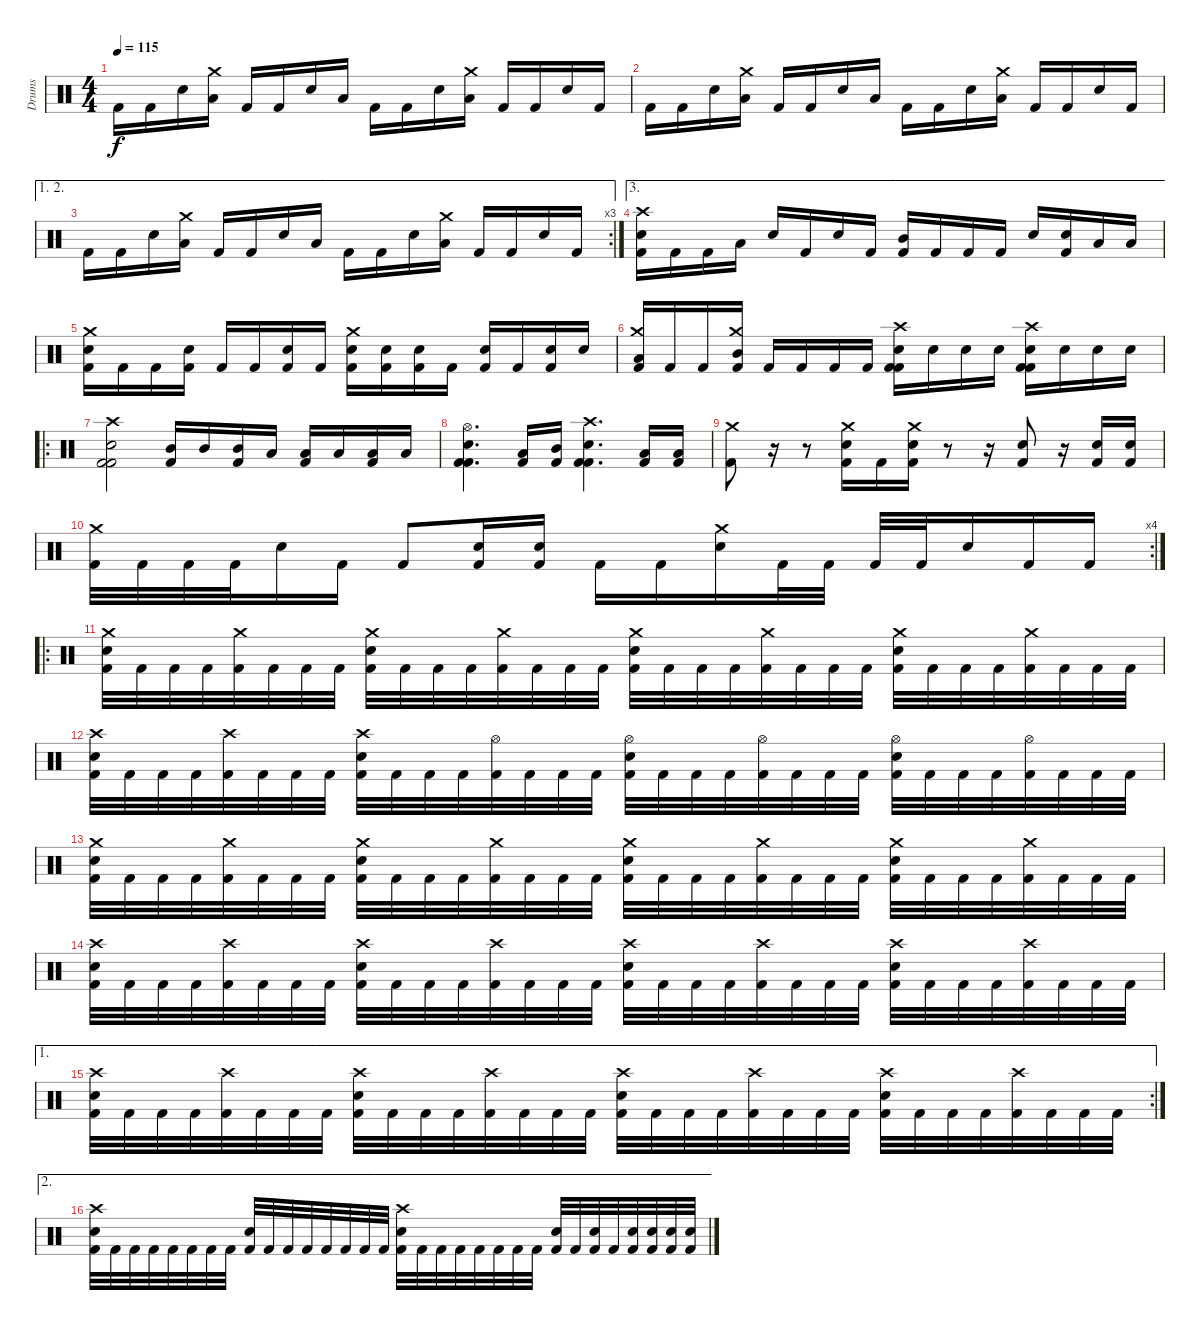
\track ("Drums" "Drums") {instrument percussion}
\staff {score}
\articulation defaults
\ts (4 4)
\tempo 115
\clef neutral
\ks c "Kick (hit) 2".16{dy f} "Kick (hit) 2".16 "Electric Snare (hit)".16
("Crash medium (hit)" "Low Tom (hit)").16 "Kick (hit) 2".16 "Kick (hit) 2".16 "Electric Snare (hit)".16 "Low Tom (hit)".16 "Kick (hit) 2".16 "Kick (hit) 2".16 "Electric Snare (hit)".16 ("Crash medium (hit)" "Low Tom (hit)").16 "Kick (hit) 2".16 "Kick (hit) 2".16 "Electric Snare (hit)".16 "Kick (hit) 2".16 |
"Kick (hit) 2".16 "Kick (hit) 2".16 "Electric Snare (hit)".16 ("Crash medium (hit)" "Low Tom (hit)").16 "Kick (hit) 2".16 "Kick (hit) 2".16 "Electric Snare (hit)".16 "Low Tom (hit)".16 "Kick (hit) 2".16 "Kick (hit) 2".16 "Electric Snare (hit)".16 ("Crash medium (hit)" "Low Tom (hit)").16 "Kick (hit) 2".16 "Kick (hit) 2".16 "Electric Snare (hit)".16 "Kick (hit) 2".16 |
\ae (1 2)
\rc 3 "Kick (hit) 2".16 "Kick (hit) 2".16 "Electric Snare (hit)".16
("Crash medium (hit)" "Low Tom (hit)").16 "Kick (hit) 2".16 "Kick (hit) 2".16 "Electric Snare (hit)".16 "Low Tom (hit)".16 "Kick (hit) 2".16 "Kick (hit) 2".16 "Electric Snare (hit)".16 ("Crash medium (hit)" "Low Tom (hit)").16 "Kick (hit) 2".16 "Kick (hit) 2".16 "Electric Snare (hit)".16 "Kick (hit) 2".16 |
\ae 3
("Crash high (hit)" "Electric Snare (hit)" "Kick (hit) 2").16 "Kick (hit) 2".16 "Kick (hit) 2".16 "Low Tom (hit)".16 "Electric Snare (hit)".16 "Kick (hit) 2".16 "Electric Snare (hit)".16 "Kick (hit) 2".16 ("Mid Tom (hit)" "Kick (hit) 2").16 "Kick (hit) 2".16 "Kick (hit) 2".16 "Kick (hit) 2".16 "Electric Snare (hit)".16 ("Electric Snare (hit)" "Kick (hit) 2").16 "Low Floor Tom (hit)".16 "Low Tom (hit)".16 |
("Crash medium (hit)" "Electric Snare (hit)" "Kick (hit) 2").16 "Kick (hit) 2".16 "Kick (hit) 2".16 ("Electric Snare (hit)" "Kick (hit) 2").16 "Kick (hit) 2".16 "Kick (hit) 2".16 ("Electric Snare (hit)" "Kick (hit) 2").16 "Kick (hit) 2".16 ("Crash medium (hit)" "Electric Snare (hit)" "Kick (hit) 2").16 ("Electric Snare (hit)" "Kick (hit) 2").16 ("Electric Snare (hit)" "Kick (hit) 2").16 "Kick (hit) 2".16 ("Electric Snare (hit)" "Kick (hit) 2").16 "Kick (hit) 2".16 ("Electric Snare (hit)" "Kick (hit) 2").16 "Electric Snare (hit)".16 |
("Crash medium (hit)" "Low Tom (hit)" "Kick (hit) 2").16 "Kick (hit) 2".16 "Kick (hit) 2".16 ("Crash medium (hit)" "Mid Tom (hit)" "Kick (hit) 2").16 "Kick (hit) 2".16 "Kick (hit) 2".16 "Kick (hit) 2".16 "Kick (hit) 2".16 ("Crash high (hit)" "Electric Snare (hit)" "Kick (hit) 2" "Kick (hit) 2").16 "Electric Snare (hit)".16 "Electric Snare (hit)".16 "Electric Snare (hit)".16 ("Crash high (hit)" "Electric Snare (hit)" "Kick (hit) 2" "Kick (hit) 2").16 "Electric Snare (hit)".16 "Electric Snare (hit)".16 "Electric Snare (hit)".16 |
\ro
("Crash high (hit)" "Electric Snare (hit)" "Kick (hit) 2" "Kick (hit) 2").2 ("Mid Tom (hit)" "Kick (hit) 2").16 "Mid Tom (hit)".16 ("Mid Tom (hit)" "Kick (hit) 2").16 "Low Tom (hit)".16 ("Low Tom (hit)" "Kick (hit) 2").16 "Low Tom (hit)".16 ("Low Floor Tom (hit)" "Kick (hit) 2").16 "Low Floor Tom (hit)".16 |
("Hi-Hat (open)" "Electric Snare (hit)" "Kick (hit) 2" "Kick (hit) 2").4{d} ("Low Tom (hit)" "Kick (hit) 2").16 ("Mid Tom (hit)" "Kick (hit) 2").16 ("Crash high (hit)" "Electric Snare (hit)" "Kick (hit) 2" "Kick (hit) 2").4{d} ("Low Floor Tom (hit)" "Kick (hit) 2").16 ("Low Tom (hit)" "Kick (hit) 2").16 |
("Crash medium (hit)" "Kick (hit) 2").8 r.16 r.8 ("Crash medium (hit)" "Electric Snare (hit)" "Kick (hit) 2").16 "Kick (hit) 2".16 ("Crash medium (hit)" "Electric Snare (hit)" "Kick (hit) 2").16 r.8 r.16 ("Electric Snare (hit)" "Kick (hit) 2").8 r.16 ("Electric Snare (hit)" "Kick (hit) 2").16 ("Electric Snare (hit)" "Kick (hit) 2").16 |
\rc 4
("Crash medium (hit)" "Kick (hit) 2").32 "Kick (hit) 2".32 "Kick (hit) 2".32 "Kick (hit) 2".32 "Electric Snare (hit)".16 "Kick (hit) 2".16 "Kick (hit) 2".8 ("Electric Snare (hit)" "Kick (hit) 2").16 ("Electric Snare (hit)" "Kick (hit) 2").16 "Kick (hit) 2".16 "Kick (hit) 2".16 ("Crash medium (hit)" "Electric Snare (hit)").16 "Kick (hit) 2".32 "Kick (hit) 2".32 "Kick (hit) 2".32 "Kick (hit) 2".32 "Electric Snare (hit)".16 "Kick (hit) 2".16 "Kick (hit) 2".16 |
\ro
("Crash medium (hit)" "Electric Snare (hit)" "Kick (hit) 2").32 "Kick (hit) 2".32 "Kick (hit) 2".32 "Kick (hit) 2".32 ("Crash medium (hit)" "Kick (hit) 2").32 "Kick (hit) 2".32 "Kick (hit) 2".32 "Kick (hit) 2".32 ("Crash medium (hit)" "Electric Snare (hit)" "Kick (hit) 2").32 "Kick (hit) 2".32 "Kick (hit) 2".32 "Kick (hit) 2".32 ("Crash medium (hit)" "Kick (hit) 2").32 "Kick (hit) 2".32 "Kick (hit) 2".32 "Kick (hit) 2".32 ("Crash medium (hit)" "Electric Snare (hit)" "Kick (hit) 2").32 "Kick (hit) 2".32 "Kick (hit) 2".32 "Kick (hit) 2".32 ("Crash medium (hit)" "Kick (hit) 2").32 "Kick (hit) 2".32 "Kick (hit) 2".32 "Kick (hit) 2".32 ("Crash medium (hit)" "Electric Snare (hit)" "Kick (hit) 2").32 "Kick (hit) 2".32 "Kick (hit) 2".32 "Kick (hit) 2".32 ("Crash medium (hit)" "Kick (hit) 2").32 "Kick (hit) 2".32 "Kick (hit) 2".32 "Kick (hit) 2".32 |
("Crash high (hit)" "Electric Snare (hit)" "Kick (hit) 2").32 "Kick (hit) 2".32 "Kick (hit) 2".32 "Kick (hit) 2".32 ("Crash high (hit)" "Kick (hit) 2").32 "Kick (hit) 2".32 "Kick (hit) 2".32 "Kick (hit) 2".32 ("Crash high (hit)" "Electric Snare (hit)" "Kick (hit) 2").32 "Kick (hit) 2".32 "Kick (hit) 2".32 "Kick (hit) 2".32 ("Hi-Hat (open)" "Kick (hit) 2").32 "Kick (hit) 2".32 "Kick (hit) 2".32 "Kick (hit) 2".32 ("Hi-Hat (open)" "Electric Snare (hit)" "Kick (hit) 2").32 "Kick (hit) 2".32 "Kick (hit) 2".32 "Kick (hit) 2".32 ("Hi-Hat (open)" "Kick (hit) 2").32 "Kick (hit) 2".32 "Kick (hit) 2".32 "Kick (hit) 2".32 ("Hi-Hat (open)" "Electric Snare (hit)" "Kick (hit) 2").32 "Kick (hit) 2".32 "Kick (hit) 2".32 "Kick (hit) 2".32 ("Hi-Hat (open)" "Kick (hit) 2").32 "Kick (hit) 2".32 "Kick (hit) 2".32 "Kick (hit) 2".32 |
("Crash medium (hit)" "Electric Snare (hit)" "Kick (hit) 2").32 "Kick (hit) 2".32 "Kick (hit) 2".32 "Kick (hit) 2".32 ("Crash medium (hit)" "Kick (hit) 2").32 "Kick (hit) 2".32 "Kick (hit) 2".32 "Kick (hit) 2".32 ("Crash medium (hit)" "Electric Snare (hit)" "Kick (hit) 2").32 "Kick (hit) 2".32 "Kick (hit) 2".32 "Kick (hit) 2".32 ("Crash medium (hit)" "Kick (hit) 2").32 "Kick (hit) 2".32 "Kick (hit) 2".32 "Kick (hit) 2".32 ("Crash medium (hit)" "Electric Snare (hit)" "Kick (hit) 2").32 "Kick (hit) 2".32 "Kick (hit) 2".32 "Kick (hit) 2".32 ("Crash medium (hit)" "Kick (hit) 2").32 "Kick (hit) 2".32 "Kick (hit) 2".32 "Kick (hit) 2".32 ("Crash medium (hit)" "Electric Snare (hit)" "Kick (hit) 2").32 "Kick (hit) 2".32 "Kick (hit) 2".32 "Kick (hit) 2".32 ("Crash medium (hit)" "Kick (hit) 2").32 "Kick (hit) 2".32 "Kick (hit) 2".32 "Kick (hit) 2".32 |
("Crash high (hit)" "Electric Snare (hit)" "Kick (hit) 2").32 "Kick (hit) 2".32 "Kick (hit) 2".32 "Kick (hit) 2".32 ("Crash high (hit)" "Kick (hit) 2").32 "Kick (hit) 2".32 "Kick (hit) 2".32 "Kick (hit) 2".32 ("Crash high (hit)" "Electric Snare (hit)" "Kick (hit) 2").32 "Kick (hit) 2".32 "Kick (hit) 2".32 "Kick (hit) 2".32 ("Crash high (hit)" "Kick (hit) 2").32 "Kick (hit) 2".32 "Kick (hit) 2".32 "Kick (hit) 2".32 ("Crash high (hit)" "Electric Snare (hit)" "Kick (hit) 2").32 "Kick (hit) 2".32 "Kick (hit) 2".32 "Kick (hit) 2".32 ("Crash high (hit)" "Kick (hit) 2").32 "Kick (hit) 2".32 "Kick (hit) 2".32 "Kick (hit) 2".32 ("Crash high (hit)" "Electric Snare (hit)" "Kick (hit) 2").32 "Kick (hit) 2".32 "Kick (hit) 2".32 "Kick (hit) 2".32 ("Crash high (hit)" "Kick (hit) 2").32 "Kick (hit) 2".32 "Kick (hit) 2".32 "Kick (hit) 2".32 |
\ae 1
\rc 2
("Crash high (hit)" "Electric Snare (hit)" "Kick (hit) 2").32 "Kick (hit) 2".32 "Kick (hit) 2".32 "Kick (hit) 2".32 ("Crash high (hit)" "Kick (hit) 2").32 "Kick (hit) 2".32 "Kick (hit) 2".32 "Kick (hit) 2".32 ("Crash high (hit)" "Electric Snare (hit)" "Kick (hit) 2").32 "Kick (hit) 2".32 "Kick (hit) 2".32 "Kick (hit) 2".32 ("Crash high (hit)" "Kick (hit) 2").32 "Kick (hit) 2".32 "Kick (hit) 2".32 "Kick (hit) 2".32 ("Crash high (hit)" "Electric Snare (hit)" "Kick (hit) 2").32 "Kick (hit) 2".32 "Kick (hit) 2".32 "Kick (hit) 2".32 ("Crash high (hit)" "Kick (hit) 2").32 "Kick (hit) 2".32 "Kick (hit) 2".32 "Kick (hit) 2".32 ("Crash high (hit)" "Electric Snare (hit)" "Kick (hit) 2").32 "Kick (hit) 2".32 "Kick (hit) 2".32 "Kick (hit) 2".32 ("Crash high (hit)" "Kick (hit) 2").32 "Kick (hit) 2".32 "Kick (hit) 2".32 "Kick (hit) 2".32 |
\ae 2
("Crash high (hit)" "Electric Snare (hit)" "Kick (hit) 2").32 "Kick (hit) 2".32 "Kick (hit) 2".32 "Kick (hit) 2".32 "Kick (hit) 2".32 "Kick (hit) 2".32 "Kick (hit) 2".32 "Kick (hit) 2".32 ("Electric Snare (hit)" "Kick (hit) 2").32 "Kick (hit) 2".32 "Kick (hit) 2".32 "Kick (hit) 2".32 "Kick (hit) 2".32 "Kick (hit) 2".32 "Kick (hit) 2".32 "Kick (hit) 2".32 ("Crash high (hit)" "Electric Snare (hit)" "Kick (hit) 2").32 "Kick (hit) 2".32 "Kick (hit) 2".32 "Kick (hit) 2".32 "Kick (hit) 2".32 "Kick (hit) 2".32 "Kick (hit) 2".32 "Kick (hit) 2".32 ("Electric Snare (hit)" "Kick (hit) 2").32 "Kick (hit) 2".32 ("Electric Snare (hit)" "Kick (hit) 2").32 "Kick (hit) 2".32 ("Electric Snare (hit)" "Kick (hit) 2").32 ("Electric Snare (hit)" "Kick (hit) 2").32 ("Electric Snare (hit)" "Kick (hit) 2").32 ("Electric Snare (hit)" "Kick (hit) 2").32
